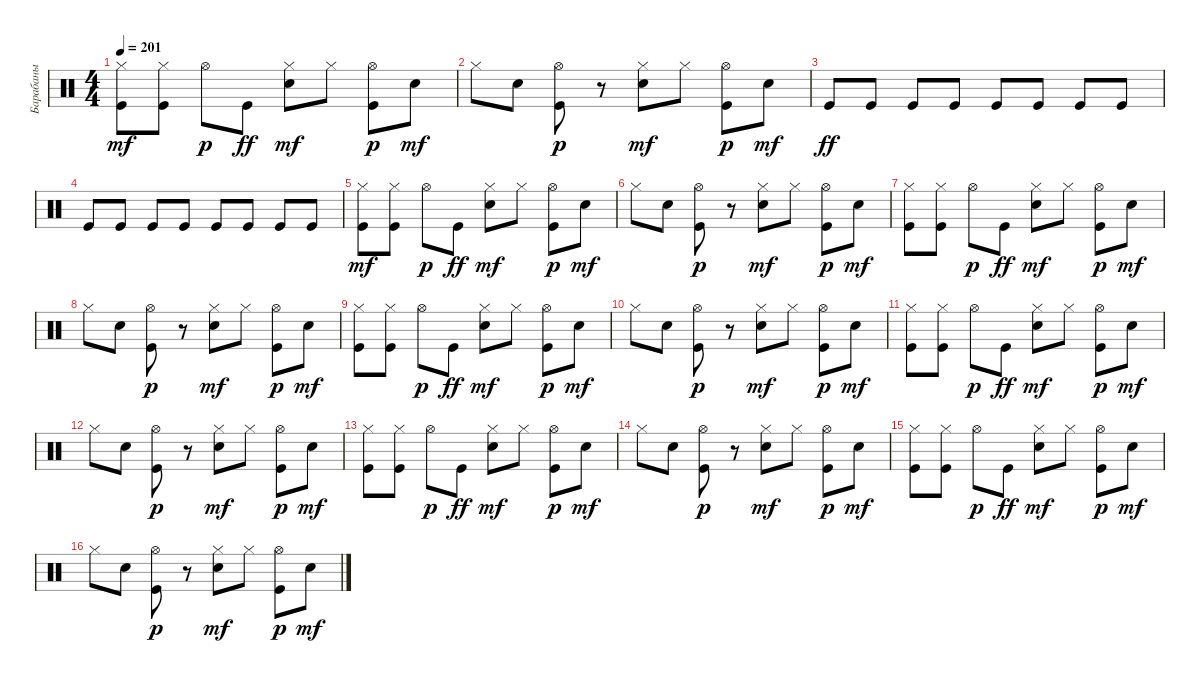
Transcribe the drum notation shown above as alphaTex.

\track ("Барабаны" "Барабаны") {instrument percussion}
\staff {score}
\articulation defaults
\ts (4 4)
\tempo 201
\clef neutral
\ks c
("Kick (hit)" "Hi-Hat (closed)").8{dy mf} ("Kick (hit)" "Hi-Hat (closed)").8 "Hi-Hat (open)".8{dy p} "Kick (hit)".8{dy ff} ("Snare (hit) 2" "Hi-Hat (closed)").8{dy mf} "Hi-Hat (closed)".8 ("Kick (hit)" "Hi-Hat (open)").8{dy p} "Snare (hit) 2".8{dy mf} |
"Hi-Hat (closed)".8 "Snare (hit) 2".8 ("Kick (hit)" "Hi-Hat (open)").8{dy p} r.8 ("Snare (hit) 2" "Hi-Hat (closed)").8{dy mf} "Hi-Hat (closed)".8 ("Kick (hit)" "Hi-Hat (open)").8{dy p} "Snare (hit) 2".8{dy mf} |
"Kick (hit)".8{dy ff} "Kick (hit)".8 "Kick (hit)".8 "Kick (hit)".8 "Kick (hit)".8 "Kick (hit)".8 "Kick (hit)".8 "Kick (hit)".8 |
"Kick (hit)".8 "Kick (hit)".8 "Kick (hit)".8 "Kick (hit)".8 "Kick (hit)".8 "Kick (hit)".8 "Kick (hit)".8 "Kick (hit)".8 |
("Kick (hit)" "Hi-Hat (closed)").8{dy mf} ("Kick (hit)" "Hi-Hat (closed)").8 "Hi-Hat (open)".8{dy p} "Kick (hit)".8{dy ff} ("Snare (hit) 2" "Hi-Hat (closed)").8{dy mf} "Hi-Hat (closed)".8 ("Kick (hit)" "Hi-Hat (open)").8{dy p} "Snare (hit) 2".8{dy mf} |
"Hi-Hat (closed)".8 "Snare (hit) 2".8 ("Kick (hit)" "Hi-Hat (open)").8{dy p} r.8 ("Snare (hit) 2" "Hi-Hat (closed)").8{dy mf} "Hi-Hat (closed)".8 ("Kick (hit)" "Hi-Hat (open)").8{dy p} "Snare (hit) 2".8{dy mf} |
("Kick (hit)" "Hi-Hat (closed)").8 ("Kick (hit)" "Hi-Hat (closed)").8 "Hi-Hat (open)".8{dy p} "Kick (hit)".8{dy ff} ("Snare (hit) 2" "Hi-Hat (closed)").8{dy mf} "Hi-Hat (closed)".8 ("Kick (hit)" "Hi-Hat (open)").8{dy p} "Snare (hit) 2".8{dy mf} |
"Hi-Hat (closed)".8 "Snare (hit) 2".8 ("Kick (hit)" "Hi-Hat (open)").8{dy p} r.8 ("Snare (hit) 2" "Hi-Hat (closed)").8{dy mf} "Hi-Hat (closed)".8 ("Kick (hit)" "Hi-Hat (open)").8{dy p} "Snare (hit) 2".8{dy mf} |
("Kick (hit)" "Hi-Hat (closed)").8 ("Kick (hit)" "Hi-Hat (closed)").8 "Hi-Hat (open)".8{dy p} "Kick (hit)".8{dy ff} ("Snare (hit) 2" "Hi-Hat (closed)").8{dy mf} "Hi-Hat (closed)".8 ("Kick (hit)" "Hi-Hat (open)").8{dy p} "Snare (hit) 2".8{dy mf} |
"Hi-Hat (closed)".8 "Snare (hit) 2".8 ("Kick (hit)" "Hi-Hat (open)").8{dy p} r.8 ("Snare (hit) 2" "Hi-Hat (closed)").8{dy mf} "Hi-Hat (closed)".8 ("Kick (hit)" "Hi-Hat (open)").8{dy p} "Snare (hit) 2".8{dy mf} |
("Kick (hit)" "Hi-Hat (closed)").8 ("Kick (hit)" "Hi-Hat (closed)").8 "Hi-Hat (open)".8{dy p} "Kick (hit)".8{dy ff} ("Snare (hit) 2" "Hi-Hat (closed)").8{dy mf} "Hi-Hat (closed)".8 ("Kick (hit)" "Hi-Hat (open)").8{dy p} "Snare (hit) 2".8{dy mf} |
"Hi-Hat (closed)".8 "Snare (hit) 2".8 ("Kick (hit)" "Hi-Hat (open)").8{dy p} r.8 ("Snare (hit) 2" "Hi-Hat (closed)").8{dy mf} "Hi-Hat (closed)".8 ("Kick (hit)" "Hi-Hat (open)").8{dy p} "Snare (hit) 2".8{dy mf} |
("Kick (hit)" "Hi-Hat (closed)").8 ("Kick (hit)" "Hi-Hat (closed)").8 "Hi-Hat (open)".8{dy p} "Kick (hit)".8{dy ff} ("Snare (hit) 2" "Hi-Hat (closed)").8{dy mf} "Hi-Hat (closed)".8 ("Kick (hit)" "Hi-Hat (open)").8{dy p} "Snare (hit) 2".8{dy mf} |
"Hi-Hat (closed)".8 "Snare (hit) 2".8 ("Kick (hit)" "Hi-Hat (open)").8{dy p} r.8 ("Snare (hit) 2" "Hi-Hat (closed)").8{dy mf} "Hi-Hat (closed)".8 ("Kick (hit)" "Hi-Hat (open)").8{dy p} "Snare (hit) 2".8{dy mf} |
("Kick (hit)" "Hi-Hat (closed)").8 ("Kick (hit)" "Hi-Hat (closed)").8 "Hi-Hat (open)".8{dy p} "Kick (hit)".8{dy ff} ("Snare (hit) 2" "Hi-Hat (closed)").8{dy mf} "Hi-Hat (closed)".8 ("Kick (hit)" "Hi-Hat (open)").8{dy p} "Snare (hit) 2".8{dy mf} |
"Hi-Hat (closed)".8 "Snare (hit) 2".8 ("Kick (hit)" "Hi-Hat (open)").8{dy p} r.8 ("Snare (hit) 2" "Hi-Hat (closed)").8{dy mf} "Hi-Hat (closed)".8 ("Kick (hit)" "Hi-Hat (open)").8{dy p} "Snare (hit) 2".8{dy mf}
